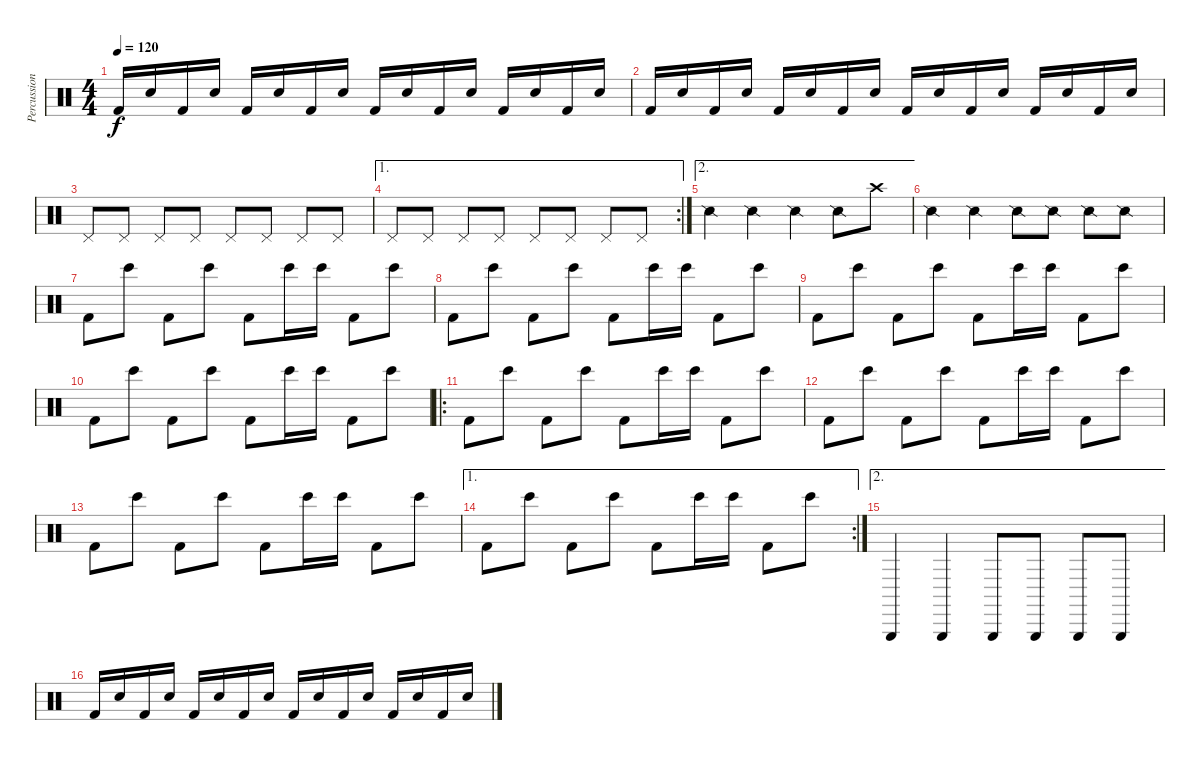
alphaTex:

\track ("Percussions" "Percussion") {instrument percussion}
\staff {score}
\articulation defaults
\ts (4 4)
\tempo 120
\clef neutral
\ks c "Kick (hit) 2".16{dy f} "Snare (hit) 2".16 "Kick (hit) 2".16 "Snare (hit) 2".16 "Kick (hit) 2".16 "Snare (hit) 2".16 "Kick (hit) 2".16 "Snare (hit) 2".16 "Kick (hit) 2".16 "Snare (hit) 2".16 "Kick (hit) 2".16 "Snare (hit) 2".16 "Kick (hit) 2".16 "Snare (hit) 2".16 "Kick (hit) 2".16 "Snare (hit) 2".16
|
"Kick (hit) 2".16 "Snare (hit) 2".16 "Kick (hit) 2".16 "Snare (hit) 2".16 "Kick (hit) 2".16 "Snare (hit) 2".16 "Kick (hit) 2".16 "Snare (hit) 2".16 "Kick (hit) 2".16 "Snare (hit) 2".16 "Kick (hit) 2".16 "Snare (hit) 2".16 "Kick (hit) 2".16 "Snare (hit) 2".16 "Kick (hit) 2".16 "Snare (hit) 2".16 |
"Pedal Hi-Hat (hit)".8 "Pedal Hi-Hat (hit)".8 "Pedal Hi-Hat (hit)".8 "Pedal Hi-Hat (hit)".8 "Pedal Hi-Hat (hit)".8 "Pedal Hi-Hat (hit)".8 "Pedal Hi-Hat (hit)".8 "Pedal Hi-Hat (hit)".8 |
\ae 1
\rc 2 "Pedal Hi-Hat (hit)".8 "Pedal Hi-Hat (hit)".8 "Pedal Hi-Hat (hit)".8 "Pedal Hi-Hat (hit)".8 "Pedal Hi-Hat (hit)".8 "Pedal Hi-Hat (hit)".8 "Pedal Hi-Hat (hit)".8 "Pedal Hi-Hat (hit)".8
|
\ae 2 "Snare (side stick) 2".4 "Snare (side stick) 2".4 "Snare (side stick) 2".4 "Snare (side stick) 2".8 "Crash high (hit)".8
|
"Snare (side stick) 2".4 "Snare (side stick) 2".4 "Snare (side stick) 2".8 "Snare (side stick) 2".8 "Snare (side stick) 2".8 "Snare (side stick) 2".8 |
"Kick (hit) 2".8 "Bongo High (hit)".8 "Kick (hit) 2".8 "Bongo High (hit)".8 "Kick (hit) 2".8 "Bongo High (hit)".16 "Bongo High (hit)".16 "Kick (hit) 2".8 "Bongo High (hit)".8 |
"Kick (hit) 2".8 "Bongo High (hit)".8 "Kick (hit) 2".8 "Bongo High (hit)".8 "Kick (hit) 2".8 "Bongo High (hit)".16 "Bongo High (hit)".16 "Kick (hit) 2".8 "Bongo High (hit)".8 |
"Kick (hit) 2".8 "Bongo High (hit)".8 "Kick (hit) 2".8 "Bongo High (hit)".8 "Kick (hit) 2".8 "Bongo High (hit)".16 "Bongo High (hit)".16 "Kick (hit) 2".8 "Bongo High (hit)".8 |
"Kick (hit) 2".8 "Bongo High (hit)".8 "Kick (hit) 2".8 "Bongo High (hit)".8 "Kick (hit) 2".8 "Bongo High (hit)".16 "Bongo High (hit)".16 "Kick (hit) 2".8 "Bongo High (hit)".8 |
\ro "Kick (hit) 2".8 "Bongo High (hit)".8 "Kick (hit) 2".8 "Bongo High (hit)".8 "Kick (hit) 2".8 "Bongo High (hit)".16 "Bongo High (hit)".16 "Kick (hit) 2".8 "Bongo High (hit)".8
|
"Kick (hit) 2".8 "Bongo High (hit)".8 "Kick (hit) 2".8 "Bongo High (hit)".8 "Kick (hit) 2".8 "Bongo High (hit)".16 "Bongo High (hit)".16 "Kick (hit) 2".8 "Bongo High (hit)".8 |
"Kick (hit) 2".8 "Bongo High (hit)".8 "Kick (hit) 2".8 "Bongo High (hit)".8 "Kick (hit) 2".8 "Bongo High (hit)".16 "Bongo High (hit)".16 "Kick (hit) 2".8 "Bongo High (hit)".8 |
\ae 1
\rc 2 "Kick (hit) 2".8 "Bongo High (hit)".8 "Kick (hit) 2".8 "Bongo High (hit)".8 "Kick (hit) 2".8 "Bongo High (hit)".16 "Bongo High (hit)".16 "Kick (hit) 2".8 "Bongo High (hit)".8
|
\ae 2 "Triangle (hit)".4 "Triangle (hit)".4 "Triangle (hit)".8 "Triangle (hit)".8 "Triangle (hit)".8 "Triangle (hit)".8
|
"Kick (hit) 2".16 "Snare (hit) 2".16 "Kick (hit) 2".16 "Snare (hit) 2".16 "Kick (hit) 2".16 "Snare (hit) 2".16 "Kick (hit) 2".16 "Snare (hit) 2".16 "Kick (hit) 2".16 "Snare (hit) 2".16 "Kick (hit) 2".16 "Snare (hit) 2".16 "Kick (hit) 2".16 "Snare (hit) 2".16 "Kick (hit) 2".16 "Snare (hit) 2".16
